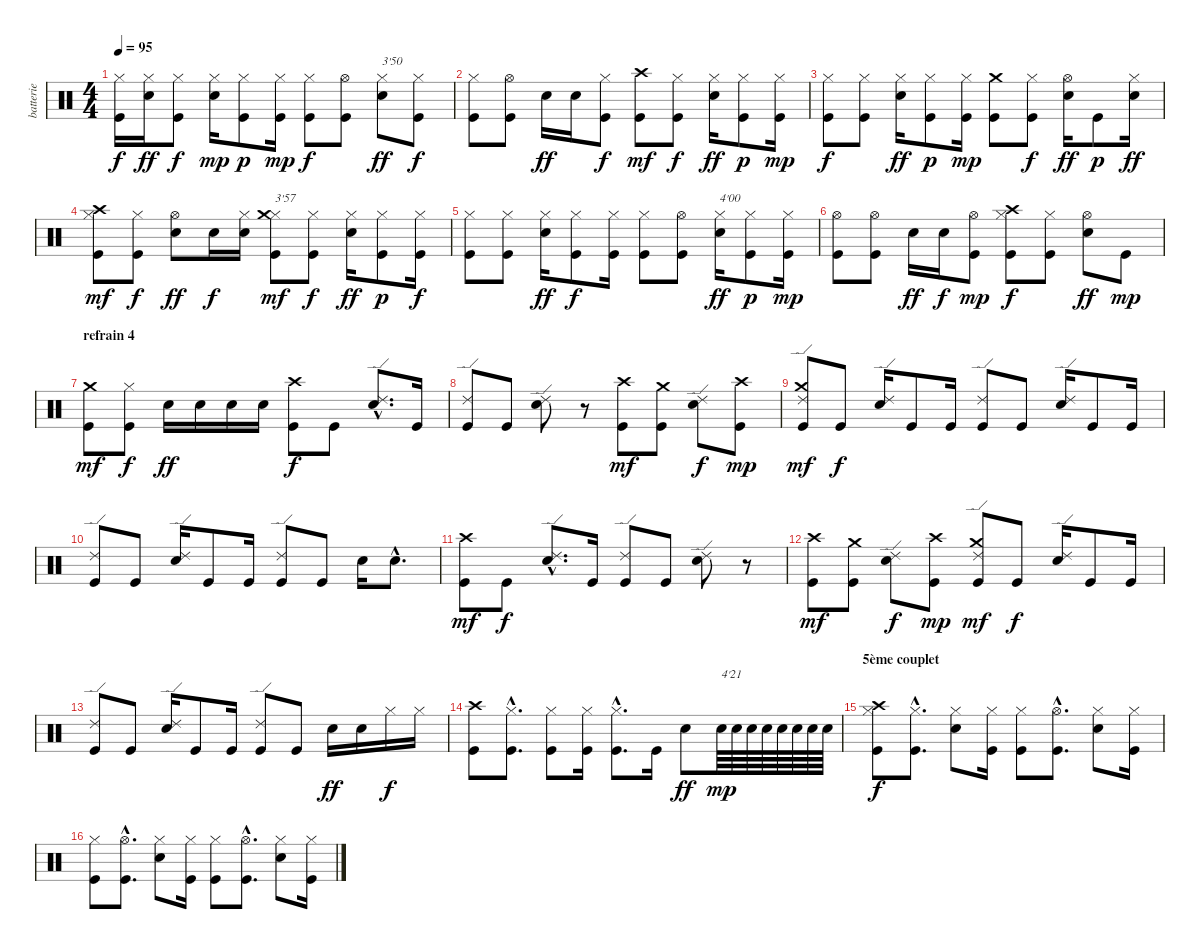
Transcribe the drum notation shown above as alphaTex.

\track ("batterie" "batterie") {instrument percussion}
\staff {score}
\articulation defaults
\ts (4 4)
\tempo 95
\clef neutral
\ks c
("Hi-Hat (closed)" "Kick (hit)").16{dy f} ("Hi-Hat (closed)" "Electric Snare (hit)").16{dy ff} ("Hi-Hat (closed)" "Kick (hit)").8{dy f} ("Hi-Hat (closed)" "Electric Snare (hit)").16{dy mp} ("Hi-Hat (closed)" "Kick (hit)").8{dy p} ("Hi-Hat (closed)" "Kick (hit)").16{dy mp} ("Hi-Hat (closed)" "Kick (hit)").8{dy f} ("Hi-Hat (open)" "Kick (hit)").8 ("Hi-Hat (closed)" "Electric Snare (hit)").8{txt "3'50" dy ff} ("Hi-Hat (closed)" "Kick (hit)").8{dy f} |
("Hi-Hat (closed)" "Kick (hit)").8 ("Hi-Hat (open)" "Kick (hit)").8 "Electric Snare (hit)".16{dy ff} "Electric Snare (hit)".16 ("Hi-Hat (closed)" "Kick (hit)").8{dy f} ("Kick (hit)" "Crash high (hit)").8{dy mf} ("Hi-Hat (closed)" "Kick (hit)").8{dy f} ("Hi-Hat (closed)" "Electric Snare (hit)").16{dy ff} ("Hi-Hat (closed)" "Kick (hit)").8{dy p} ("Hi-Hat (closed)" "Kick (hit)").16{dy mp} |
("Hi-Hat (closed)" "Kick (hit)").8{dy f} ("Hi-Hat (closed)" "Kick (hit)").8 ("Hi-Hat (closed)" "Electric Snare (hit)").16{dy ff} ("Hi-Hat (closed)" "Kick (hit)").8{dy p} ("Hi-Hat (closed)" "Kick (hit)").16{dy mp} ("Kick (hit)" "Crash medium (hit)").8 ("Hi-Hat (closed)" "Kick (hit)").8{dy f} ("Hi-Hat (open)" "Electric Snare (hit)").16{dy ff} "Kick (hit)".8{dy p} ("Hi-Hat (closed)" "Electric Snare (hit)").16{dy ff} |
("Hi-Hat (closed)" "Kick (hit)" "Crash high (hit)").8{dy mf} ("Hi-Hat (closed)" "Kick (hit)").8{dy f} ("Hi-Hat (open)" "Electric Snare (hit)").8{dy ff} "Electric Snare (hit)".16{dy f} ("Hi-Hat (closed)" "Electric Snare (hit)").16 ("Hi-Hat (closed)" "Kick (hit)" "Crash medium (hit)").8{txt "3'57" dy mf} ("Hi-Hat (closed)" "Kick (hit)").8{dy f} ("Hi-Hat (closed)" "Electric Snare (hit)").16{dy ff} ("Hi-Hat (closed)" "Kick (hit)").8{dy p} ("Hi-Hat (closed)" "Kick (hit)").16{dy f} |
("Hi-Hat (closed)" "Kick (hit)").8 ("Hi-Hat (closed)" "Kick (hit)").8 ("Hi-Hat (closed)" "Electric Snare (hit)").16{dy ff} ("Hi-Hat (closed)" "Kick (hit)").8{dy f} ("Hi-Hat (closed)" "Kick (hit)").16 ("Hi-Hat (closed)" "Kick (hit)").8 ("Hi-Hat (open)" "Kick (hit)").8 ("Hi-Hat (closed)" "Electric Snare (hit)").16{txt "4'00" dy ff} ("Hi-Hat (closed)" "Kick (hit)").8{dy p} ("Hi-Hat (closed)" "Kick (hit)").16{dy mp} |
("Hi-Hat (open)" "Kick (hit)").8 ("Hi-Hat (open)" "Kick (hit)").8 "Electric Snare (hit)".16{dy ff} "Electric Snare (hit)".16{dy f} ("Hi-Hat (open)" "Kick (hit)").8{dy mp} ("Hi-Hat (closed)" "Kick (hit)" "Crash high (hit)").8{dy f} ("Hi-Hat (closed)" "Kick (hit)").8 ("Hi-Hat (open)" "Electric Snare (hit)").8{dy ff} "Kick (hit)".8{dy mp} |
\section ("" "refrain 4")
("Kick (hit)" "Crash medium (hit)").8{dy mf} ("Hi-Hat (closed)" "Kick (hit)").8{dy f} "Electric Snare (hit)".16{dy ff} "Electric Snare (hit)".16 "Electric Snare (hit)".16 "Electric Snare (hit)".16 ("Kick (hit)" "Crash high (hit)").8{dy f} "Kick (hit)".8 ("Ride (edge) 2"{hac} "Electric Snare (hit)"{hac}).8{d} "Kick (hit)".16 |
("Ride (edge) 2" "Kick (hit)").8 "Kick (hit)".8 ("Ride (edge) 2" "Electric Snare (hit)").8 r.8 ("Kick (hit)" "Crash high (hit)").8{dy mf} ("Kick (hit)" "Crash medium (hit)").8 ("Ride (edge) 2" "Electric Snare (hit)").8{dy f} ("Kick (hit)" "Crash high (hit)").8{dy mp} |
("Ride (edge) 2" "Kick (hit)" "Crash medium (hit)").8{dy mf} "Kick (hit)".8{dy f} ("Ride (edge) 2" "Electric Snare (hit)").16 "Kick (hit)".8 "Kick (hit)".16 ("Ride (edge) 2" "Kick (hit)").8 "Kick (hit)".8 ("Ride (edge) 2" "Electric Snare (hit)").16 "Kick (hit)".8 "Kick (hit)".16 |
("Ride (edge) 2" "Kick (hit)").8 "Kick (hit)".8 ("Ride (edge) 2" "Electric Snare (hit)").16 "Kick (hit)".8 "Kick (hit)".16 ("Ride (edge) 2" "Kick (hit)").8 "Kick (hit)".8 "Electric Snare (hit)".16 "Electric Snare (hit)"{hac}.8{d} |
("Kick (hit)" "Crash high (hit)").8{dy mf} "Kick (hit)".8{dy f} ("Ride (edge) 2"{hac} "Electric Snare (hit)"{hac}).8{d} "Kick (hit)".16 ("Ride (edge) 2" "Kick (hit)").8 "Kick (hit)".8 ("Ride (edge) 2" "Electric Snare (hit)").8 r.8 |
("Kick (hit)" "Crash high (hit)").8{dy mf} ("Kick (hit)" "Crash medium (hit)").8 ("Ride (edge) 2" "Electric Snare (hit)").8{dy f} ("Kick (hit)" "Crash high (hit)").8{dy mp} ("Ride (edge) 2" "Kick (hit)" "Crash medium (hit)").8{dy mf} "Kick (hit)".8{dy f} ("Ride (edge) 2" "Electric Snare (hit)").16 "Kick (hit)".8 "Kick (hit)".16 |
("Ride (edge) 2" "Kick (hit)").8 "Kick (hit)".8 ("Ride (edge) 2" "Electric Snare (hit)").16 "Kick (hit)".8 "Kick (hit)".16 ("Ride (edge) 2" "Kick (hit)").8 "Kick (hit)".8 "Electric Snare (hit)".16{dy ff} "Electric Snare (hit)".16 "Hi-Hat (closed)".16{dy f} "Hi-Hat (closed)".16 |
("Kick (hit)" "Crash high (hit)").8 ("Hi-Hat (closed)"{hac} "Kick (hit)"{hac}).8{d} ("Hi-Hat (closed)" "Kick (hit)").8 ("Hi-Hat (closed)" "Kick (hit)").16 ("Hi-Hat (closed)"{hac} "Kick (hit)"{hac}).8{d} "Kick (hit)".16 "Electric Snare (hit)".8{dy ff} "Electric Snare (hit)".64{txt "4'21" dy mp} "Electric Snare (hit)".64 "Electric Snare (hit)".64 "Electric Snare (hit)".64 "Electric Snare (hit)".64 "Electric Snare (hit)".64 "Electric Snare (hit)".64 "Electric Snare (hit)".64 |
\section ("" "5ème couplet")
("Hi-Hat (closed)" "Kick (hit)" "Crash high (hit)").8{dy f} ("Hi-Hat (closed)"{hac} "Kick (hit)"{hac}).8{d} ("Hi-Hat (closed)" "Electric Snare (hit)").8 ("Hi-Hat (closed)" "Kick (hit)").16 ("Hi-Hat (closed)" "Kick (hit)").8 ("Hi-Hat (open)"{hac} "Kick (hit)"{hac}).8{d} ("Hi-Hat (closed)" "Electric Snare (hit)").8 ("Hi-Hat (closed)" "Kick (hit)").16 |
("Hi-Hat (closed)" "Kick (hit)").8 ("Hi-Hat (open)"{hac} "Kick (hit)"{hac}).8{d} ("Hi-Hat (closed)" "Electric Snare (hit)").8 ("Hi-Hat (closed)" "Kick (hit)").16 ("Hi-Hat (closed)" "Kick (hit)").8 ("Hi-Hat (open)"{hac} "Kick (hit)"{hac}).8{d} ("Hi-Hat (closed)" "Electric Snare (hit)").8 ("Hi-Hat (closed)" "Kick (hit)").16
